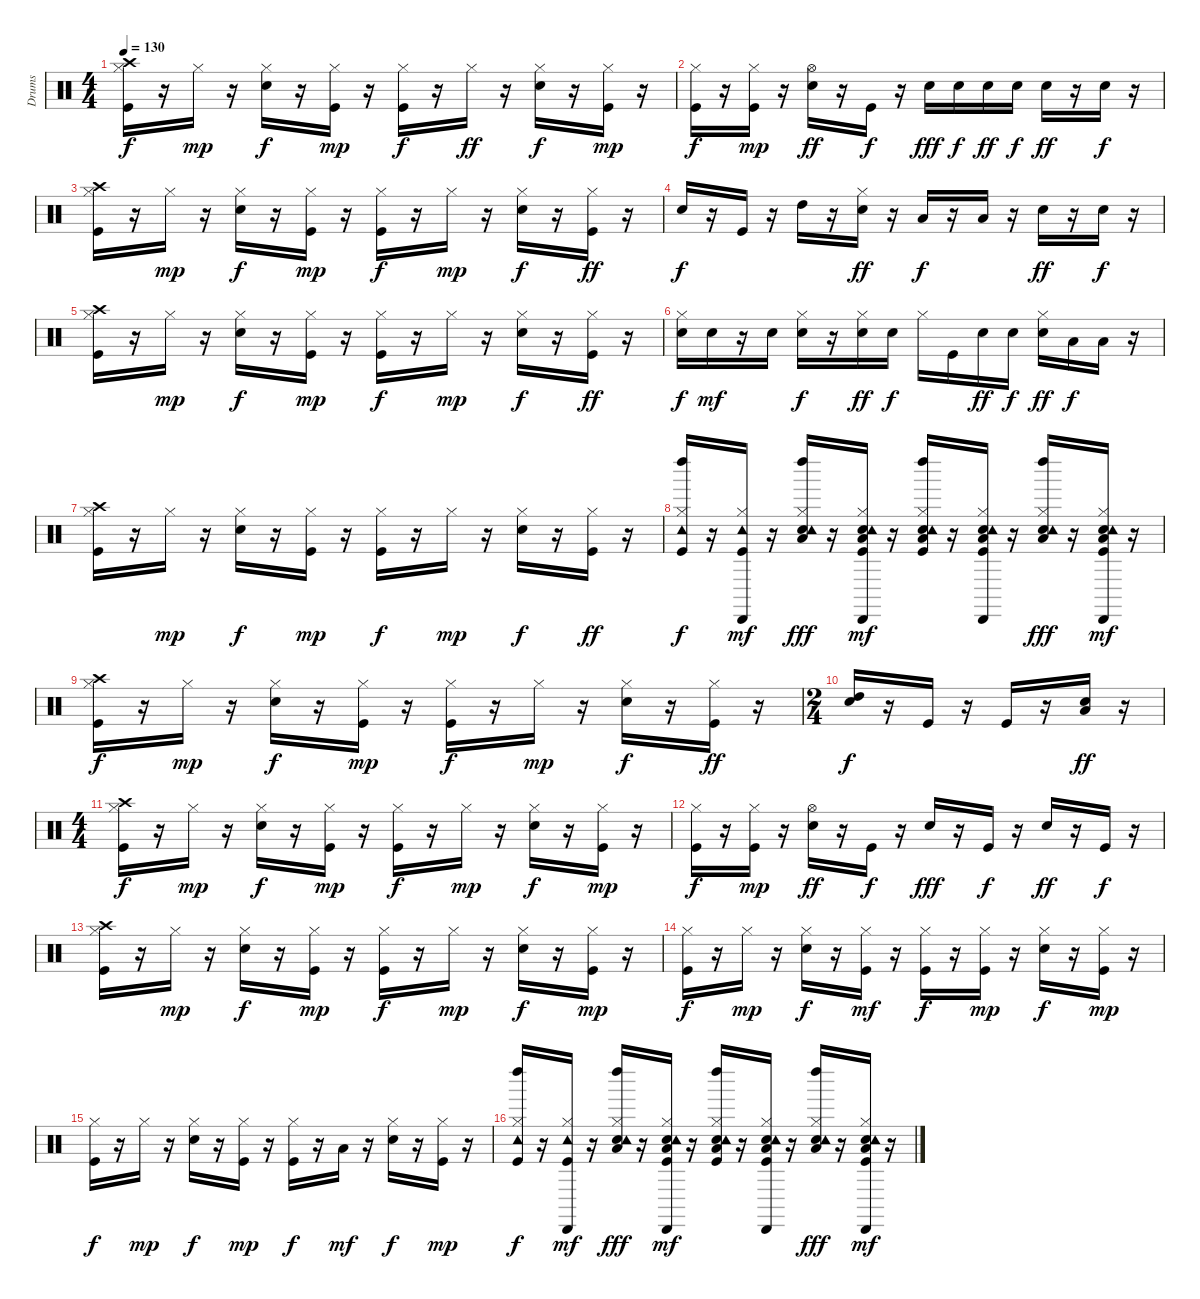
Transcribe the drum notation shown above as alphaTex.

\track ("Drums" "Drums") {instrument percussion}
\staff {score}
\articulation defaults
\ts (4 4)
\tempo 130
\clef neutral
\ks c
("Kick (hit)" "Hi-Hat (closed)" "Crash high (hit)").16{dy f} r.16 "Hi-Hat (closed)".16{dy mp} r.16 ("Snare (hit) 2" "Hi-Hat (closed)").16{dy f} r.16 ("Kick (hit)" "Hi-Hat (closed)").16{dy mp} r.16 ("Kick (hit)" "Hi-Hat (closed)").16{dy f} r.16 "Hi-Hat (closed)".16{dy ff} r.16 ("Snare (hit) 2" "Hi-Hat (closed)").16{dy f} r.16 ("Kick (hit)" "Hi-Hat (closed)").16{dy mp} r.16 |
("Kick (hit)" "Hi-Hat (closed)").16{dy f} r.16 ("Kick (hit)" "Hi-Hat (closed)").16{dy mp} r.16 ("Snare (hit) 2" "Hi-Hat (open)").16{dy ff} r.16 "Kick (hit)".16{dy f} r.16 "Snare (hit) 2".16{dy fff} "Snare (hit) 2".16{dy f} "Snare (hit) 2".16{dy ff} "Snare (hit) 2".16{dy f} "Snare (hit) 2".16{dy ff} r.16 "Snare (hit) 2".16{dy f} r.16 |
("Kick (hit)" "Hi-Hat (closed)" "Crash high (hit)").16 r.16 "Hi-Hat (closed)".16{dy mp} r.16 ("Snare (hit) 2" "Hi-Hat (closed)").16{dy f} r.16 ("Kick (hit)" "Hi-Hat (closed)").16{dy mp} r.16 ("Kick (hit)" "Hi-Hat (closed)").16{dy f} r.16 "Hi-Hat (closed)".16{dy mp} r.16 ("Snare (hit) 2" "Hi-Hat (closed)").16{dy f} r.16 ("Kick (hit)" "Hi-Hat (closed)").16{dy ff} r.16 |
"Snare (hit) 2".16{dy f} r.16 "Kick (hit)".16 r.16 "High Tom (hit)".16 r.16 ("Snare (hit) 2" "Hi-Hat (closed)").16{dy ff} r.16 "Low Tom (hit)".16{dy f} r.16 "Low Tom (hit)".16 r.16 "Snare (hit) 2".16{dy ff} r.16 "Snare (hit) 2".16{dy f} r.16 |
("Kick (hit)" "Hi-Hat (closed)" "Crash high (hit)").16 r.16 "Hi-Hat (closed)".16{dy mp} r.16 ("Snare (hit) 2" "Hi-Hat (closed)").16{dy f} r.16 ("Kick (hit)" "Hi-Hat (closed)").16{dy mp} r.16 ("Kick (hit)" "Hi-Hat (closed)").16{dy f} r.16 "Hi-Hat (closed)".16{dy mp} r.16 ("Snare (hit) 2" "Hi-Hat (closed)").16{dy f} r.16 ("Kick (hit)" "Hi-Hat (closed)").16{dy ff} r.16 |
("Snare (hit) 2" "Hi-Hat (closed)").16{dy f} "Snare (hit) 2".16{dy mf} r.16 "Snare (hit) 2".16 ("Snare (hit) 2" "Hi-Hat (closed)").16{dy f} r.16 ("Snare (hit) 2" "Hi-Hat (closed)").16{dy ff} "Snare (hit) 2".16{dy f} "Hi-Hat (closed)".16 "Kick (hit)".16 "Snare (hit) 2".16{dy ff} "Snare (hit) 2".16{dy f} ("Snare (hit) 2" "Hi-Hat (closed)").16{dy ff} "Low Tom (hit)".16{dy f} "Low Floor Tom (hit)".16 r.16 |
("Kick (hit)" "Hi-Hat (closed)" "Crash high (hit)").16 r.16 "Hi-Hat (closed)".16{dy mp} r.16 ("Snare (hit) 2" "Hi-Hat (closed)").16{dy f} r.16 ("Kick (hit)" "Hi-Hat (closed)").16{dy mp} r.16 ("Kick (hit)" "Hi-Hat (closed)").16{dy f} r.16 "Hi-Hat (closed)".16{dy mp} r.16 ("Snare (hit) 2" "Hi-Hat (closed)").16{dy f} r.16 ("Kick (hit)" "Hi-Hat (closed)").16{dy ff} r.16 |
("Kick (hit)" "Hi-Hat (closed)" "Tambourine (hit)" "Left Maraca (hit)").16{dy f} r.16 ("Kick (hit)" "Hi-Hat (closed)" "Tambourine (hit)" "Cabasa (hit)").16{dy mf} r.16 ("Snare (hit) 2" "Hi-Hat (closed)" "Low Floor Tom (hit)" "Tambourine (hit)" "Left Maraca (hit)").16{dy fff} r.16 ("Kick (hit)" "Snare (hit) 2" "Hi-Hat (closed)" "Low Floor Tom (hit)" "Tambourine (hit)" "Cabasa (hit)").16{dy mf} r.16 ("Kick (hit)" "Snare (hit) 2" "Hi-Hat (closed)" "Low Floor Tom (hit)" "Tambourine (hit)" "Left Maraca (hit)").16 r.16 ("Kick (hit)" "Snare (hit) 2" "Hi-Hat (closed)" "Low Floor Tom (hit)" "Tambourine (hit)" "Cabasa (hit)").16 r.16 ("Snare (hit) 2" "Hi-Hat (closed)" "Low Floor Tom (hit)" "Tambourine (hit)" "Left Maraca (hit)").16{dy fff} r.16 ("Kick (hit)" "Snare (hit) 2" "Hi-Hat (closed)" "Low Floor Tom (hit)" "Tambourine (hit)" "Cabasa (hit)").16{dy mf} r.16 |
("Kick (hit)" "Hi-Hat (closed)" "Crash high (hit)").16{dy f} r.16 "Hi-Hat (closed)".16{dy mp} r.16 ("Snare (hit) 2" "Hi-Hat (closed)").16{dy f} r.16 ("Kick (hit)" "Hi-Hat (closed)").16{dy mp} r.16 ("Kick (hit)" "Hi-Hat (closed)").16{dy f} r.16 "Hi-Hat (closed)".16{dy mp} r.16 ("Snare (hit) 2" "Hi-Hat (closed)").16{dy f} r.16 ("Kick (hit)" "Hi-Hat (closed)").16{dy ff} r.16 |
\ts (2 4)
("Snare (hit) 2" "High Tom (hit)").16{dy f} r.16 "Kick (hit)".16 r.16 "Kick (hit)".16 r.16 ("Snare (hit) 2" "Low Tom (hit)").16{dy ff} r.16 |
\ts (4 4)
("Kick (hit)" "Hi-Hat (closed)" "Crash high (hit)").16{dy f} r.16 "Hi-Hat (closed)".16{dy mp} r.16 ("Snare (hit) 2" "Hi-Hat (closed)").16{dy f} r.16 ("Kick (hit)" "Hi-Hat (closed)").16{dy mp} r.16 ("Kick (hit)" "Hi-Hat (closed)").16{dy f} r.16 "Hi-Hat (closed)".16{dy mp} r.16 ("Snare (hit) 2" "Hi-Hat (closed)").16{dy f} r.16 ("Kick (hit)" "Hi-Hat (closed)").16{dy mp} r.16 |
("Kick (hit)" "Hi-Hat (closed)").16{dy f} r.16 ("Kick (hit)" "Hi-Hat (closed)").16{dy mp} r.16 ("Snare (hit) 2" "Hi-Hat (open)").16{dy ff} r.16 "Kick (hit)".16{dy f} r.16 "Snare (hit) 2".16{dy fff} r.16 "Kick (hit)".16{dy f} r.16 "Snare (hit) 2".16{dy ff} r.16 "Kick (hit)".16{dy f} r.16 |
("Kick (hit)" "Hi-Hat (closed)" "Crash high (hit)").16 r.16 "Hi-Hat (closed)".16{dy mp} r.16 ("Snare (hit) 2" "Hi-Hat (closed)").16{dy f} r.16 ("Kick (hit)" "Hi-Hat (closed)").16{dy mp} r.16 ("Kick (hit)" "Hi-Hat (closed)").16{dy f} r.16 "Hi-Hat (closed)".16{dy mp} r.16 ("Snare (hit) 2" "Hi-Hat (closed)").16{dy f} r.16 ("Kick (hit)" "Hi-Hat (closed)").16{dy mp} r.16 |
("Kick (hit)" "Hi-Hat (closed)").16{dy f} r.16 "Hi-Hat (closed)".16{dy mp} r.16 ("Snare (hit) 2" "Hi-Hat (closed)").16{dy f} r.16 ("Kick (hit)" "Hi-Hat (closed)").16{dy mf} r.16 ("Kick (hit)" "Hi-Hat (closed)").16{dy f} r.16 ("Kick (hit)" "Hi-Hat (closed)").16{dy mp} r.16 ("Snare (hit) 2" "Hi-Hat (closed)").16{dy f} r.16 ("Kick (hit)" "Hi-Hat (closed)").16{dy mp} r.16 |
("Kick (hit)" "Hi-Hat (closed)").16{dy f} r.16 "Hi-Hat (closed)".16{dy mp} r.16 ("Snare (hit) 2" "Hi-Hat (closed)").16{dy f} r.16 ("Kick (hit)" "Hi-Hat (closed)").16{dy mp} r.16 ("Kick (hit)" "Hi-Hat (closed)").16{dy f} r.16 "Low Floor Tom (hit)".16{dy mf} r.16 ("Snare (hit) 2" "Hi-Hat (closed)").16{dy f} r.16 ("Kick (hit)" "Hi-Hat (closed)").16{dy mp} r.16 |
("Kick (hit)" "Hi-Hat (closed)" "Tambourine (hit)" "Left Maraca (hit)").16{dy f} r.16 ("Kick (hit)" "Hi-Hat (closed)" "Tambourine (hit)" "Cabasa (hit)").16{dy mf} r.16 ("Snare (hit) 2" "Hi-Hat (closed)" "Low Floor Tom (hit)" "Tambourine (hit)" "Left Maraca (hit)").16{dy fff} r.16 ("Kick (hit)" "Snare (hit) 2" "Hi-Hat (closed)" "Low Floor Tom (hit)" "Tambourine (hit)" "Cabasa (hit)").16{dy mf} r.16 ("Kick (hit)" "Snare (hit) 2" "Hi-Hat (closed)" "Low Floor Tom (hit)" "Tambourine (hit)" "Left Maraca (hit)").16 r.16 ("Kick (hit)" "Snare (hit) 2" "Hi-Hat (closed)" "Low Floor Tom (hit)" "Tambourine (hit)" "Cabasa (hit)").16 r.16 ("Snare (hit) 2" "Hi-Hat (closed)" "Low Floor Tom (hit)" "Tambourine (hit)" "Left Maraca (hit)").16{dy fff} r.16 ("Kick (hit)" "Snare (hit) 2" "Hi-Hat (closed)" "Low Floor Tom (hit)" "Tambourine (hit)" "Cabasa (hit)").16{dy mf} r.16
